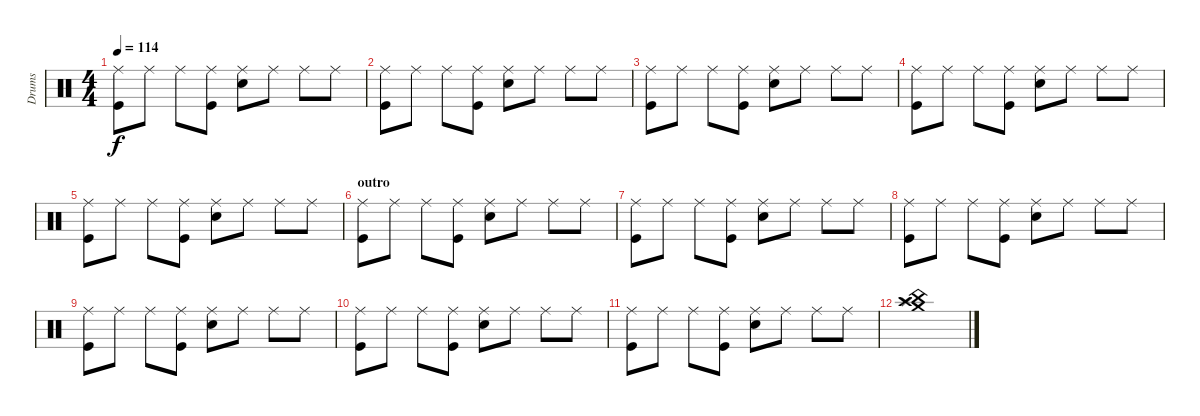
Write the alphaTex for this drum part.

\track ("Drums" "Drums") {instrument percussion}
\staff {score}
\articulation defaults
\ts (4 4)
\tempo 114
\clef neutral
\ks c
("Ride (middle)" "Kick (hit)").8{dy f} "Ride (middle)".8 "Ride (middle)".8 ("Ride (middle)" "Kick (hit)").8 ("Ride (middle)" "Snare (hit) 2").8 "Ride (middle)".8 "Ride (middle)".8 "Ride (middle)".8 |
("Ride (middle)" "Kick (hit)").8 "Ride (middle)".8 "Ride (middle)".8 ("Ride (middle)" "Kick (hit)").8 ("Ride (middle)" "Snare (hit) 2").8 "Ride (middle)".8 "Ride (middle)".8 "Ride (middle)".8 |
("Ride (middle)" "Kick (hit)").8 "Ride (middle)".8 "Ride (middle)".8 ("Ride (middle)" "Kick (hit)").8 ("Ride (middle)" "Snare (hit) 2").8 "Ride (middle)".8 "Ride (middle)".8 "Ride (middle)".8 |
("Ride (middle)" "Kick (hit)").8 "Ride (middle)".8 "Ride (middle)".8 ("Ride (middle)" "Kick (hit)").8 ("Ride (middle)" "Snare (hit) 2").8 "Ride (middle)".8 "Ride (middle)".8 "Ride (middle)".8 |
("Ride (middle)" "Kick (hit)").8 "Ride (middle)".8 "Ride (middle)".8 ("Ride (middle)" "Kick (hit)").8 ("Ride (middle)" "Snare (hit) 2").8 "Ride (middle)".8 "Ride (middle)".8 "Ride (middle)".8 |
\section ("" "outro")
("Ride (middle)" "Kick (hit)").8 "Ride (middle)".8 "Ride (middle)".8 ("Ride (middle)" "Kick (hit)").8 ("Ride (middle)" "Snare (hit) 2").8 "Ride (middle)".8 "Ride (middle)".8 "Ride (middle)".8 |
("Ride (middle)" "Kick (hit)").8 "Ride (middle)".8 "Ride (middle)".8 ("Ride (middle)" "Kick (hit)").8 ("Ride (middle)" "Snare (hit) 2").8 "Ride (middle)".8 "Ride (middle)".8 "Ride (middle)".8 |
("Ride (middle)" "Kick (hit)").8 "Ride (middle)".8 "Ride (middle)".8 ("Ride (middle)" "Kick (hit)").8 ("Ride (middle)" "Snare (hit) 2").8 "Ride (middle)".8 "Ride (middle)".8 "Ride (middle)".8 |
("Ride (middle)" "Kick (hit)").8 "Ride (middle)".8 "Ride (middle)".8 ("Ride (middle)" "Kick (hit)").8 ("Ride (middle)" "Snare (hit) 2").8 "Ride (middle)".8 "Ride (middle)".8 "Ride (middle)".8 |
("Ride (middle)" "Kick (hit)").8 "Ride (middle)".8 "Ride (middle)".8 ("Ride (middle)" "Kick (hit)").8 ("Ride (middle)" "Snare (hit) 2").8 "Ride (middle)".8 "Ride (middle)".8 "Ride (middle)".8 |
("Ride (middle)" "Kick (hit)").8 "Ride (middle)".8 "Ride (middle)".8 ("Ride (middle)" "Kick (hit)").8 ("Ride (middle)" "Snare (hit) 2").8 "Ride (middle)".8 "Ride (middle)".8 "Ride (middle)".8 |
("Crash medium (hit)" "Splash (hit)" "China (hit)" "Crash high (hit)").1
